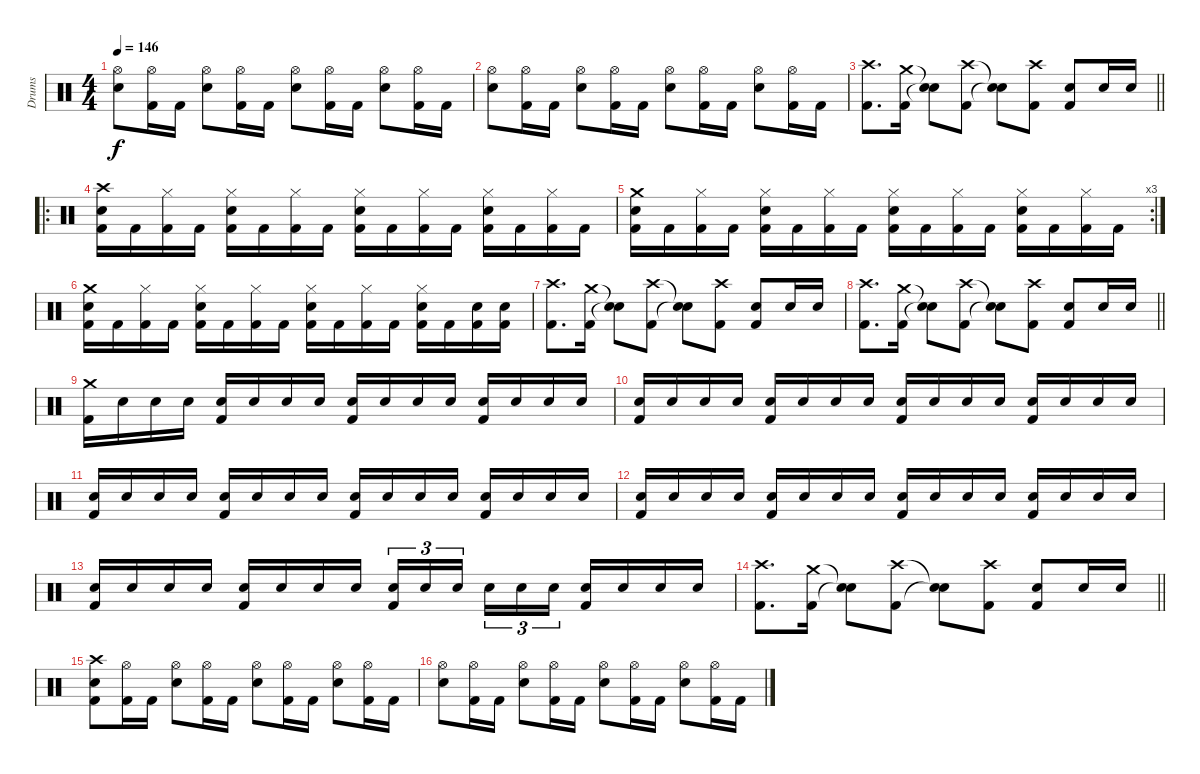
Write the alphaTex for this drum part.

\track ("Drums" "Drums") {instrument percussion}
\staff {score}
\articulation defaults
\ts (4 4)
\tempo 146
\clef neutral
\ks c
("Hi-Hat (open)" "Snare (hit) 2").8{dy f} ("Hi-Hat (open)" "Kick (hit) 2").16 "Kick (hit) 2".16 ("Hi-Hat (open)" "Snare (hit) 2").8 ("Hi-Hat (open)" "Kick (hit) 2").16 "Kick (hit) 2".16 ("Hi-Hat (open)" "Snare (hit) 2").8 ("Hi-Hat (open)" "Kick (hit) 2").16 "Kick (hit) 2".16 ("Hi-Hat (open)" "Snare (hit) 2").8 ("Hi-Hat (open)" "Kick (hit) 2").16 "Kick (hit) 2".16 |
("Hi-Hat (open)" "Snare (hit) 2").8 ("Hi-Hat (open)" "Kick (hit) 2").16 "Kick (hit) 2".16 ("Hi-Hat (open)" "Snare (hit) 2").8 ("Hi-Hat (open)" "Kick (hit) 2").16 "Kick (hit) 2".16 ("Hi-Hat (open)" "Snare (hit) 2").8 ("Hi-Hat (open)" "Kick (hit) 2").16 "Kick (hit) 2".16 ("Hi-Hat (open)" "Snare (hit) 2").8 ("Hi-Hat (open)" "Kick (hit) 2").16 "Kick (hit) 2".16 |
\barLineRight lightlight
("Crash high (hit)" "Kick (hit) 2").8{d} ("Crash medium (hit)" "Kick (hit) 2").16 ("Snare (hit)"{t} "Snare (hit)"{t}).8 ("Crash high (hit)" "Kick (hit) 2").8 ("Snare (hit)"{t} "Snare (hit)"{t}).8 ("Crash high (hit)" "Kick (hit) 2").8 ("Snare (hit) 2" "Kick (hit) 2").8 "Snare (hit) 2".16 "Snare (hit) 2".16 |
\ro
("Crash high (hit)" "Snare (hit) 2" "Kick (hit) 2").16 "Kick (hit) 2".16 ("Hi-Hat (closed)" "Kick (hit) 2").16 "Kick (hit) 2".16 ("Hi-Hat (closed)" "Snare (hit) 2" "Kick (hit) 2").16 "Kick (hit) 2".16 ("Hi-Hat (closed)" "Kick (hit) 2").16 "Kick (hit) 2".16 ("Hi-Hat (closed)" "Snare (hit) 2" "Kick (hit) 2").16 "Kick (hit) 2".16 ("Hi-Hat (closed)" "Kick (hit) 2").16 "Kick (hit) 2".16 ("Hi-Hat (closed)" "Snare (hit) 2" "Kick (hit) 2").16 "Kick (hit) 2".16 ("Hi-Hat (closed)" "Kick (hit) 2").16 "Kick (hit) 2".16 |
\rc 3
("Crash medium (hit)" "Snare (hit) 2" "Kick (hit) 2").16 "Kick (hit) 2".16 ("Hi-Hat (closed)" "Kick (hit) 2").16 "Kick (hit) 2".16 ("Hi-Hat (closed)" "Snare (hit) 2" "Kick (hit) 2").16 "Kick (hit) 2".16 ("Hi-Hat (closed)" "Kick (hit) 2").16 "Kick (hit) 2".16 ("Hi-Hat (closed)" "Snare (hit) 2" "Kick (hit) 2").16 "Kick (hit) 2".16 ("Hi-Hat (closed)" "Kick (hit) 2").16 "Kick (hit) 2".16 ("Hi-Hat (closed)" "Snare (hit) 2" "Kick (hit) 2").16 "Kick (hit) 2".16 ("Hi-Hat (closed)" "Kick (hit) 2").16 "Kick (hit) 2".16 |
("Crash medium (hit)" "Snare (hit) 2" "Kick (hit) 2").16 "Kick (hit) 2".16 ("Hi-Hat (closed)" "Kick (hit) 2").16 "Kick (hit) 2".16 ("Hi-Hat (closed)" "Snare (hit) 2" "Kick (hit) 2").16 "Kick (hit) 2".16 ("Hi-Hat (closed)" "Kick (hit) 2").16 "Kick (hit) 2".16 ("Hi-Hat (closed)" "Snare (hit) 2" "Kick (hit) 2").16 "Kick (hit) 2".16 ("Hi-Hat (closed)" "Kick (hit) 2").16 "Kick (hit) 2".16 ("Hi-Hat (closed)" "Snare (hit) 2" "Kick (hit) 2").16 "Kick (hit) 2".16 ("Snare (hit) 2" "Kick (hit) 2").16 ("Snare (hit) 2" "Kick (hit) 2").16 |
("Crash high (hit)" "Kick (hit) 2").8{d} ("Crash medium (hit)" "Kick (hit) 2").16 ("Snare (hit)"{t} "Snare (hit)"{t}).8 ("Crash high (hit)" "Kick (hit) 2").8 ("Snare (hit)"{t} "Snare (hit)"{t}).8 ("Crash high (hit)" "Kick (hit) 2").8 ("Snare (hit) 2" "Kick (hit) 2").8 "Snare (hit) 2".16 "Snare (hit) 2".16 |
\barLineRight lightlight
("Crash high (hit)" "Kick (hit) 2").8{d} ("Crash medium (hit)" "Kick (hit) 2").16 ("Snare (hit)"{t} "Snare (hit)"{t}).8 ("Crash high (hit)" "Kick (hit) 2").8 ("Snare (hit)"{t} "Snare (hit)"{t}).8 ("Crash high (hit)" "Kick (hit) 2").8 ("Snare (hit) 2" "Kick (hit) 2").8 "Snare (hit) 2".16 "Snare (hit) 2".16 |
("Crash medium (hit)" "Kick (hit) 2").16 "Snare (hit) 2".16 "Snare (hit) 2".16 "Snare (hit) 2".16 ("Snare (hit) 2" "Kick (hit) 2").16 "Snare (hit) 2".16 "Snare (hit) 2".16 "Snare (hit) 2".16 ("Snare (hit) 2" "Kick (hit) 2").16 "Snare (hit) 2".16 "Snare (hit) 2".16 "Snare (hit) 2".16 ("Snare (hit) 2" "Kick (hit) 2").16 "Snare (hit) 2".16 "Snare (hit) 2".16 "Snare (hit) 2".16 |
("Snare (hit) 2" "Kick (hit) 2").16 "Snare (hit) 2".16 "Snare (hit) 2".16 "Snare (hit) 2".16 ("Snare (hit) 2" "Kick (hit) 2").16 "Snare (hit) 2".16 "Snare (hit) 2".16 "Snare (hit) 2".16 ("Snare (hit) 2" "Kick (hit) 2").16 "Snare (hit) 2".16 "Snare (hit) 2".16 "Snare (hit) 2".16 ("Snare (hit) 2" "Kick (hit) 2").16 "Snare (hit) 2".16 "Snare (hit) 2".16 "Snare (hit) 2".16 |
("Snare (hit) 2" "Kick (hit) 2").16 "Snare (hit) 2".16 "Snare (hit) 2".16 "Snare (hit) 2".16 ("Snare (hit) 2" "Kick (hit) 2").16 "Snare (hit) 2".16 "Snare (hit) 2".16 "Snare (hit) 2".16 ("Snare (hit) 2" "Kick (hit) 2").16 "Snare (hit) 2".16 "Snare (hit) 2".16 "Snare (hit) 2".16 ("Snare (hit) 2" "Kick (hit) 2").16 "Snare (hit) 2".16 "Snare (hit) 2".16 "Snare (hit) 2".16 |
("Snare (hit) 2" "Kick (hit) 2").16 "Snare (hit) 2".16 "Snare (hit) 2".16 "Snare (hit) 2".16 ("Snare (hit) 2" "Kick (hit) 2").16 "Snare (hit) 2".16 "Snare (hit) 2".16 "Snare (hit) 2".16 ("Snare (hit) 2" "Kick (hit) 2").16 "Snare (hit) 2".16 "Snare (hit) 2".16 "Snare (hit) 2".16 ("Snare (hit) 2" "Kick (hit) 2").16 "Snare (hit) 2".16 "Snare (hit) 2".16 "Snare (hit) 2".16 |
("Snare (hit) 2" "Kick (hit) 2").16 "Snare (hit) 2".16 "Snare (hit) 2".16 "Snare (hit) 2".16 ("Snare (hit) 2" "Kick (hit) 2").16 "Snare (hit) 2".16 "Snare (hit) 2".16 "Snare (hit) 2".16 ("Snare (hit) 2" "Kick (hit) 2").16{tu (3 2)} "Snare (hit) 2".16{tu (3 2)} "Snare (hit) 2".16{tu (3 2) beam splitsecondary} "Snare (hit) 2".16{tu (3 2)} "Snare (hit) 2".16{tu (3 2)} "Snare (hit) 2".16{tu (3 2)} ("Snare (hit) 2" "Kick (hit) 2").16 "Snare (hit) 2".16 "Snare (hit) 2".16 "Snare (hit) 2".16 |
\barLineRight lightlight
("Crash high (hit)" "Kick (hit) 2").8{d} ("Crash medium (hit)" "Kick (hit) 2").16 ("Snare (hit)"{t} "Snare (hit)"{t}).8 ("Crash high (hit)" "Kick (hit) 2").8 ("Snare (hit)"{t} "Snare (hit)"{t}).8 ("Crash high (hit)" "Kick (hit) 2").8 ("Snare (hit) 2" "Kick (hit) 2").8 "Snare (hit) 2".16 "Snare (hit) 2".16 |
("Crash high (hit)" "Snare (hit) 2" "Kick (hit) 2").8 ("Hi-Hat (open)" "Kick (hit) 2").16 "Kick (hit) 2".16 ("Hi-Hat (open)" "Snare (hit) 2").8 ("Hi-Hat (open)" "Kick (hit) 2").16 "Kick (hit) 2".16 ("Hi-Hat (open)" "Snare (hit) 2").8 ("Hi-Hat (open)" "Kick (hit) 2").16 "Kick (hit) 2".16 ("Hi-Hat (open)" "Snare (hit) 2").8 ("Hi-Hat (open)" "Kick (hit) 2").16 "Kick (hit) 2".16 |
("Hi-Hat (open)" "Snare (hit) 2").8 ("Hi-Hat (open)" "Kick (hit) 2").16 "Kick (hit) 2".16 ("Hi-Hat (open)" "Snare (hit) 2").8 ("Hi-Hat (open)" "Kick (hit) 2").16 "Kick (hit) 2".16 ("Hi-Hat (open)" "Snare (hit) 2").8 ("Hi-Hat (open)" "Kick (hit) 2").16 "Kick (hit) 2".16 ("Hi-Hat (open)" "Snare (hit) 2").8 ("Hi-Hat (open)" "Kick (hit) 2").16 "Kick (hit) 2".16
